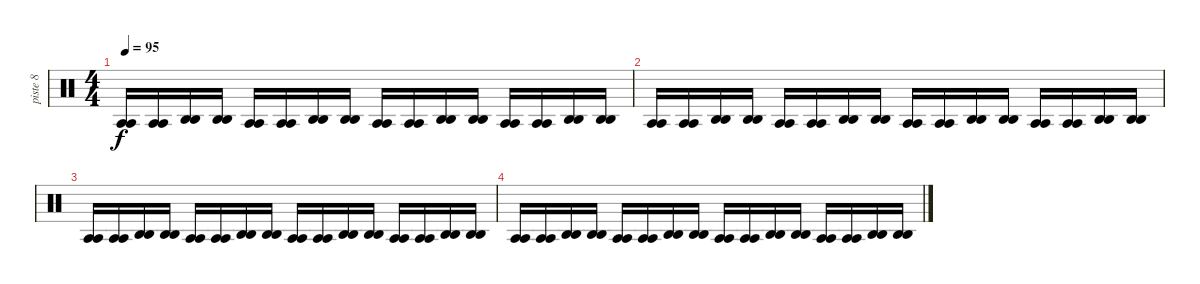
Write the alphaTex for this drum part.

\track ("piste 8" "piste 8") {instrument percussion}
\staff {score}
\articulation defaults
\ts (4 4)
\tempo 95
\clef neutral
\ks c
("Agogo tow (hit)" "Agogo tow (hit)").16{dy f} ("Agogo tow (hit)" "Agogo tow (hit)").16 ("Agogo high (hit)" "Agogo high (hit)").16 ("Agogo high (hit)" "Agogo high (hit)").16 ("Agogo tow (hit)" "Agogo tow (hit)").16 ("Agogo tow (hit)" "Agogo tow (hit)").16 ("Agogo high (hit)" "Agogo high (hit)").16 ("Agogo high (hit)" "Agogo high (hit)").16 ("Agogo tow (hit)" "Agogo tow (hit)").16 ("Agogo tow (hit)" "Agogo tow (hit)").16 ("Agogo high (hit)" "Agogo high (hit)").16 ("Agogo high (hit)" "Agogo high (hit)").16 ("Agogo tow (hit)" "Agogo tow (hit)").16 ("Agogo tow (hit)" "Agogo tow (hit)").16 ("Agogo high (hit)" "Agogo high (hit)").16 ("Agogo high (hit)" "Agogo high (hit)").16 |
("Agogo tow (hit)" "Agogo tow (hit)").16 ("Agogo tow (hit)" "Agogo tow (hit)").16 ("Agogo high (hit)" "Agogo high (hit)").16 ("Agogo high (hit)" "Agogo high (hit)").16 ("Agogo tow (hit)" "Agogo tow (hit)").16 ("Agogo tow (hit)" "Agogo tow (hit)").16 ("Agogo high (hit)" "Agogo high (hit)").16 ("Agogo high (hit)" "Agogo high (hit)").16 ("Agogo tow (hit)" "Agogo tow (hit)").16 ("Agogo tow (hit)" "Agogo tow (hit)").16 ("Agogo high (hit)" "Agogo high (hit)").16 ("Agogo high (hit)" "Agogo high (hit)").16 ("Agogo tow (hit)" "Agogo tow (hit)").16 ("Agogo tow (hit)" "Agogo tow (hit)").16 ("Agogo high (hit)" "Agogo high (hit)").16 ("Agogo high (hit)" "Agogo high (hit)").16 |
("Agogo tow (hit)" "Agogo tow (hit)").16 ("Agogo tow (hit)" "Agogo tow (hit)").16 ("Agogo high (hit)" "Agogo high (hit)").16 ("Agogo high (hit)" "Agogo high (hit)").16 ("Agogo tow (hit)" "Agogo tow (hit)").16 ("Agogo tow (hit)" "Agogo tow (hit)").16 ("Agogo high (hit)" "Agogo high (hit)").16 ("Agogo high (hit)" "Agogo high (hit)").16 ("Agogo tow (hit)" "Agogo tow (hit)").16 ("Agogo tow (hit)" "Agogo tow (hit)").16 ("Agogo high (hit)" "Agogo high (hit)").16 ("Agogo high (hit)" "Agogo high (hit)").16 ("Agogo tow (hit)" "Agogo tow (hit)").16 ("Agogo tow (hit)" "Agogo tow (hit)").16 ("Agogo high (hit)" "Agogo high (hit)").16 ("Agogo high (hit)" "Agogo high (hit)").16 |
("Agogo tow (hit)" "Agogo tow (hit)").16 ("Agogo tow (hit)" "Agogo tow (hit)").16 ("Agogo high (hit)" "Agogo high (hit)").16 ("Agogo high (hit)" "Agogo high (hit)").16 ("Agogo tow (hit)" "Agogo tow (hit)").16 ("Agogo tow (hit)" "Agogo tow (hit)").16 ("Agogo high (hit)" "Agogo high (hit)").16 ("Agogo high (hit)" "Agogo high (hit)").16 ("Agogo tow (hit)" "Agogo tow (hit)").16 ("Agogo tow (hit)" "Agogo tow (hit)").16 ("Agogo high (hit)" "Agogo high (hit)").16 ("Agogo high (hit)" "Agogo high (hit)").16 ("Agogo tow (hit)" "Agogo tow (hit)").16 ("Agogo tow (hit)" "Agogo tow (hit)").16 ("Agogo high (hit)" "Agogo high (hit)").16 ("Agogo high (hit)" "Agogo high (hit)").16
